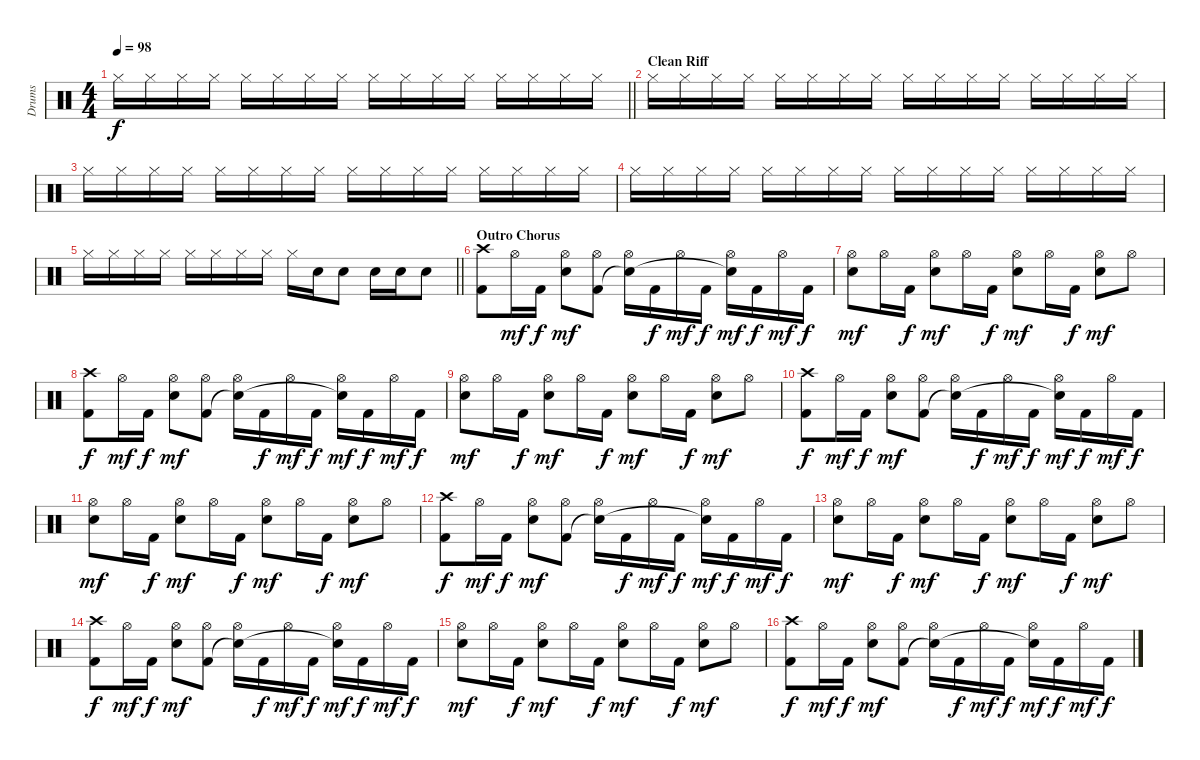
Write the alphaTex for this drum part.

\track ("Drums" "Drums") {instrument percussion}
\staff {score}
\articulation defaults
\ts (4 4)
\tempo 98
\clef neutral
\barLineRight lightlight
\ks c "Hi-Hat (closed)".16{dy f} "Hi-Hat (closed)".16 "Hi-Hat (closed)".16 "Hi-Hat (closed)".16 "Hi-Hat (closed)".16 "Hi-Hat (closed)".16 "Hi-Hat (closed)".16 "Hi-Hat (closed)".16 "Hi-Hat (closed)".16 "Hi-Hat (closed)".16 "Hi-Hat (closed)".16 "Hi-Hat (closed)".16 "Hi-Hat (closed)".16 "Hi-Hat (closed)".16 "Hi-Hat (closed)".16 "Hi-Hat (closed)".16
|
\section ("" "Clean Riff")
"Hi-Hat (closed)".16 "Hi-Hat (closed)".16 "Hi-Hat (closed)".16 "Hi-Hat (closed)".16 "Hi-Hat (closed)".16 "Hi-Hat (closed)".16 "Hi-Hat (closed)".16 "Hi-Hat (closed)".16 "Hi-Hat (closed)".16 "Hi-Hat (closed)".16 "Hi-Hat (closed)".16 "Hi-Hat (closed)".16 "Hi-Hat (closed)".16 "Hi-Hat (closed)".16 "Hi-Hat (closed)".16 "Hi-Hat (closed)".16 |
"Hi-Hat (closed)".16 "Hi-Hat (closed)".16 "Hi-Hat (closed)".16 "Hi-Hat (closed)".16 "Hi-Hat (closed)".16 "Hi-Hat (closed)".16 "Hi-Hat (closed)".16 "Hi-Hat (closed)".16 "Hi-Hat (closed)".16 "Hi-Hat (closed)".16 "Hi-Hat (closed)".16 "Hi-Hat (closed)".16 "Hi-Hat (closed)".16 "Hi-Hat (closed)".16 "Hi-Hat (closed)".16 "Hi-Hat (closed)".16 |
"Hi-Hat (closed)".16 "Hi-Hat (closed)".16 "Hi-Hat (closed)".16 "Hi-Hat (closed)".16 "Hi-Hat (closed)".16 "Hi-Hat (closed)".16 "Hi-Hat (closed)".16 "Hi-Hat (closed)".16 "Hi-Hat (closed)".16 "Hi-Hat (closed)".16 "Hi-Hat (closed)".16 "Hi-Hat (closed)".16 "Hi-Hat (closed)".16 "Hi-Hat (closed)".16 "Hi-Hat (closed)".16 "Hi-Hat (closed)".16 |
\barLineRight lightlight "Hi-Hat (closed)".16 "Hi-Hat (closed)".16 "Hi-Hat (closed)".16 "Hi-Hat (closed)".16 "Hi-Hat (closed)".16 "Hi-Hat (closed)".16 "Hi-Hat (closed)".16 "Hi-Hat (closed)".16 "Hi-Hat (closed)".16 "Electric Snare (hit)".16 "Electric Snare (hit)".8 "Electric Snare (hit)".16 "Electric Snare (hit)".16 "Electric Snare (hit)".8
|
\section ("" "Outro Chorus")
("Crash high (hit)" "Kick (hit) 2").8 "Hi-Hat (open)".16{dy mf} "Kick (hit) 2".16{dy f} ("Hi-Hat (open)" "Electric Snare (hit)").8{dy mf} ("Hi-Hat (open)" "Kick (hit) 2").8 ("Hi-Hat (open)" "Snare (hit)"{t}).16 "Kick (hit) 2".16{dy f} "Hi-Hat (open)".16{dy mf} "Kick (hit) 2".16{dy f} ("Hi-Hat (open)" "Snare (hit)"{t}).16{dy mf} "Kick (hit) 2".16{dy f} "Hi-Hat (open)".16{dy mf} "Kick (hit) 2".16{dy f} |
("Hi-Hat (open)" "Electric Snare (hit)").8{dy mf} "Hi-Hat (open)".16 "Kick (hit) 2".16{dy f} ("Hi-Hat (open)" "Electric Snare (hit)").8{dy mf} "Hi-Hat (open)".16 "Kick (hit) 2".16{dy f} ("Hi-Hat (open)" "Electric Snare (hit)").8{dy mf} "Hi-Hat (open)".16 "Kick (hit) 2".16{dy f} ("Hi-Hat (open)" "Electric Snare (hit)").8{dy mf} "Hi-Hat (open)".8 |
("Crash high (hit)" "Kick (hit) 2").8{dy f} "Hi-Hat (open)".16{dy mf} "Kick (hit) 2".16{dy f} ("Hi-Hat (open)" "Electric Snare (hit)").8{dy mf} ("Hi-Hat (open)" "Kick (hit) 2").8 ("Hi-Hat (open)" "Snare (hit)"{t}).16 "Kick (hit) 2".16{dy f} "Hi-Hat (open)".16{dy mf} "Kick (hit) 2".16{dy f} ("Hi-Hat (open)" "Snare (hit)"{t}).16{dy mf} "Kick (hit) 2".16{dy f} "Hi-Hat (open)".16{dy mf} "Kick (hit) 2".16{dy f} |
("Hi-Hat (open)" "Electric Snare (hit)").8{dy mf} "Hi-Hat (open)".16 "Kick (hit) 2".16{dy f} ("Hi-Hat (open)" "Electric Snare (hit)").8{dy mf} "Hi-Hat (open)".16 "Kick (hit) 2".16{dy f} ("Hi-Hat (open)" "Electric Snare (hit)").8{dy mf} "Hi-Hat (open)".16 "Kick (hit) 2".16{dy f} ("Hi-Hat (open)" "Electric Snare (hit)").8{dy mf} "Hi-Hat (open)".8 |
("Crash high (hit)" "Kick (hit) 2").8{dy f} "Hi-Hat (open)".16{dy mf} "Kick (hit) 2".16{dy f} ("Hi-Hat (open)" "Electric Snare (hit)").8{dy mf} ("Hi-Hat (open)" "Kick (hit) 2").8 ("Hi-Hat (open)" "Snare (hit)"{t}).16 "Kick (hit) 2".16{dy f} "Hi-Hat (open)".16{dy mf} "Kick (hit) 2".16{dy f} ("Hi-Hat (open)" "Snare (hit)"{t}).16{dy mf} "Kick (hit) 2".16{dy f} "Hi-Hat (open)".16{dy mf} "Kick (hit) 2".16{dy f} |
("Hi-Hat (open)" "Electric Snare (hit)").8{dy mf} "Hi-Hat (open)".16 "Kick (hit) 2".16{dy f} ("Hi-Hat (open)" "Electric Snare (hit)").8{dy mf} "Hi-Hat (open)".16 "Kick (hit) 2".16{dy f} ("Hi-Hat (open)" "Electric Snare (hit)").8{dy mf} "Hi-Hat (open)".16 "Kick (hit) 2".16{dy f} ("Hi-Hat (open)" "Electric Snare (hit)").8{dy mf} "Hi-Hat (open)".8 |
("Crash high (hit)" "Kick (hit) 2").8{dy f volume 8} "Hi-Hat (open)".16{dy mf} "Kick (hit) 2".16{dy f} ("Hi-Hat (open)" "Electric Snare (hit)").8{dy mf} ("Hi-Hat (open)" "Kick (hit) 2").8 ("Hi-Hat (open)" "Snare (hit)"{t}).16 "Kick (hit) 2".16{dy f} "Hi-Hat (open)".16{dy mf} "Kick (hit) 2".16{dy f} ("Hi-Hat (open)" "Snare (hit)"{t}).16{dy mf} "Kick (hit) 2".16{dy f} "Hi-Hat (open)".16{dy mf} "Kick (hit) 2".16{dy f} |
("Hi-Hat (open)" "Electric Snare (hit)").8{dy mf} "Hi-Hat (open)".16 "Kick (hit) 2".16{dy f} ("Hi-Hat (open)" "Electric Snare (hit)").8{dy mf} "Hi-Hat (open)".16 "Kick (hit) 2".16{dy f} ("Hi-Hat (open)" "Electric Snare (hit)").8{dy mf} "Hi-Hat (open)".16 "Kick (hit) 2".16{dy f} ("Hi-Hat (open)" "Electric Snare (hit)").8{dy mf} "Hi-Hat (open)".8 |
("Crash high (hit)" "Kick (hit) 2").8{dy f volume 4} "Hi-Hat (open)".16{dy mf} "Kick (hit) 2".16{dy f} ("Hi-Hat (open)" "Electric Snare (hit)").8{dy mf} ("Hi-Hat (open)" "Kick (hit) 2").8 ("Hi-Hat (open)" "Snare (hit)"{t}).16 "Kick (hit) 2".16{dy f} "Hi-Hat (open)".16{dy mf} "Kick (hit) 2".16{dy f} ("Hi-Hat (open)" "Snare (hit)"{t}).16{dy mf} "Kick (hit) 2".16{dy f} "Hi-Hat (open)".16{dy mf} "Kick (hit) 2".16{dy f} |
("Hi-Hat (open)" "Electric Snare (hit)").8{dy mf} "Hi-Hat (open)".16 "Kick (hit) 2".16{dy f} ("Hi-Hat (open)" "Electric Snare (hit)").8{dy mf} "Hi-Hat (open)".16 "Kick (hit) 2".16{dy f} ("Hi-Hat (open)" "Electric Snare (hit)").8{dy mf} "Hi-Hat (open)".16 "Kick (hit) 2".16{dy f} ("Hi-Hat (open)" "Electric Snare (hit)").8{dy mf} "Hi-Hat (open)".8 |
("Crash high (hit)" "Kick (hit) 2").8{dy f volume 0} "Hi-Hat (open)".16{dy mf} "Kick (hit) 2".16{dy f} ("Hi-Hat (open)" "Electric Snare (hit)").8{dy mf} ("Hi-Hat (open)" "Kick (hit) 2").8 ("Hi-Hat (open)" "Snare (hit)"{t}).16 "Kick (hit) 2".16{dy f} "Hi-Hat (open)".16{dy mf} "Kick (hit) 2".16{dy f} ("Hi-Hat (open)" "Snare (hit)"{t}).16{dy mf} "Kick (hit) 2".16{dy f} "Hi-Hat (open)".16{dy mf} "Kick (hit) 2".16{dy f}
